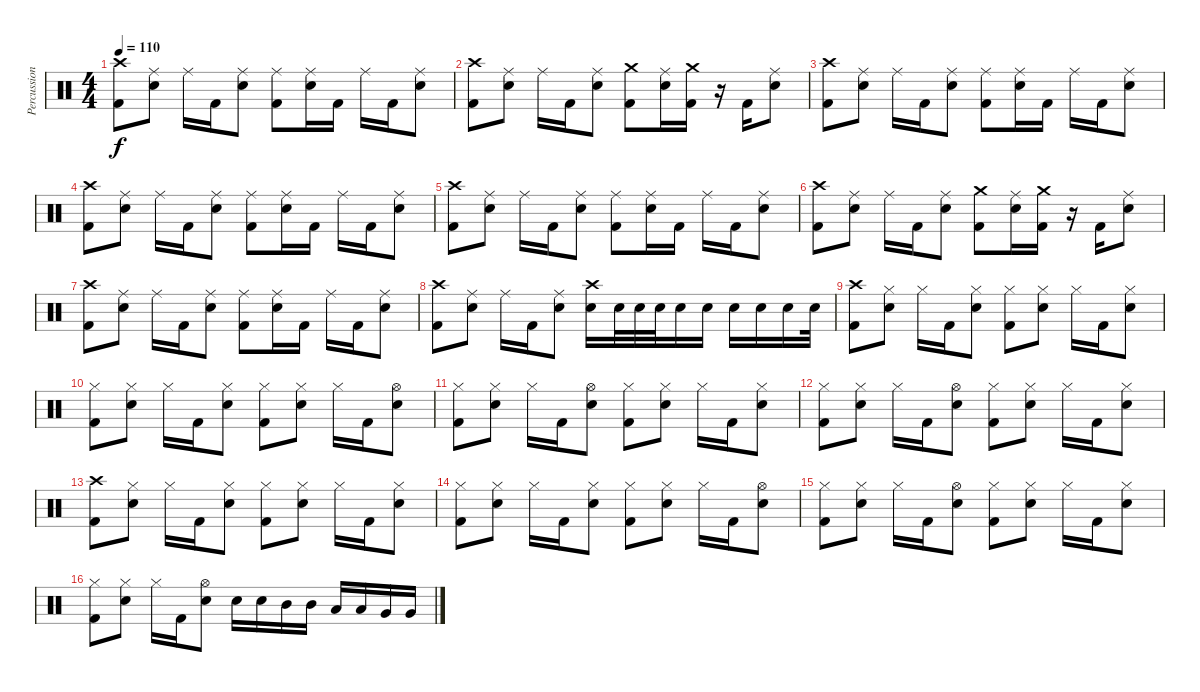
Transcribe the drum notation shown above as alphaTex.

\track ("Percussion" "Percussion") {instrument percussion}
\staff {score}
\articulation defaults
\ts (4 4)
\tempo 110
\clef neutral
\ks c
("Crash high (hit)" "Kick (hit) 2").8{dy f} ("Ride (middle)" "Electric Snare (hit)").8 "Ride (middle)".16 "Kick (hit) 2".16 ("Ride (middle)" "Electric Snare (hit)").8 ("Ride (middle)" "Kick (hit) 2").8 ("Ride (middle)" "Electric Snare (hit)").16 "Kick (hit) 2".16 "Ride (middle)".16 "Kick (hit) 2".16 ("Ride (middle)" "Electric Snare (hit)").8 |
("Crash high (hit)" "Kick (hit) 2").8 ("Ride (middle)" "Electric Snare (hit)").8 "Ride (middle)".16 "Kick (hit) 2".16 ("Ride (middle)" "Electric Snare (hit)").8 ("Crash medium (hit)" "Kick (hit) 2").8 ("Ride (middle)" "Electric Snare (hit)").16 ("Crash medium (hit)" "Kick (hit) 2").16 r.16 "Kick (hit) 2".16 ("Ride (middle)" "Electric Snare (hit)").8 |
("Crash high (hit)" "Kick (hit) 2").8 ("Ride (middle)" "Electric Snare (hit)").8 "Ride (middle)".16 "Kick (hit) 2".16 ("Ride (middle)" "Electric Snare (hit)").8 ("Ride (middle)" "Kick (hit) 2").8 ("Ride (middle)" "Electric Snare (hit)").16 "Kick (hit) 2".16 "Ride (middle)".16 "Kick (hit) 2".16 ("Ride (middle)" "Electric Snare (hit)").8 |
("Crash high (hit)" "Kick (hit) 2").8 ("Ride (middle)" "Electric Snare (hit)").8 "Ride (middle)".16 "Kick (hit) 2".16 ("Ride (middle)" "Electric Snare (hit)").8 ("Ride (middle)" "Kick (hit) 2").8 ("Ride (middle)" "Electric Snare (hit)").16 "Kick (hit) 2".16 "Ride (middle)".16 "Kick (hit) 2".16 ("Ride (middle)" "Electric Snare (hit)").8 |
("Crash high (hit)" "Kick (hit) 2").8 ("Ride (middle)" "Electric Snare (hit)").8 "Ride (middle)".16 "Kick (hit) 2".16 ("Ride (middle)" "Electric Snare (hit)").8 ("Ride (middle)" "Kick (hit) 2").8 ("Ride (middle)" "Electric Snare (hit)").16 "Kick (hit) 2".16 "Ride (middle)".16 "Kick (hit) 2".16 ("Ride (middle)" "Electric Snare (hit)").8 |
("Crash high (hit)" "Kick (hit) 2").8 ("Ride (middle)" "Electric Snare (hit)").8 "Ride (middle)".16 "Kick (hit) 2".16 ("Ride (middle)" "Electric Snare (hit)").8 ("Crash medium (hit)" "Kick (hit) 2").8 ("Ride (middle)" "Electric Snare (hit)").16 ("Crash medium (hit)" "Kick (hit) 2").16 r.16 "Kick (hit) 2".16 ("Ride (middle)" "Electric Snare (hit)").8 |
("Crash high (hit)" "Kick (hit) 2").8 ("Ride (middle)" "Electric Snare (hit)").8 "Ride (middle)".16 "Kick (hit) 2".16 ("Ride (middle)" "Electric Snare (hit)").8 ("Ride (middle)" "Kick (hit) 2").8 ("Ride (middle)" "Electric Snare (hit)").16 "Kick (hit) 2".16 "Ride (middle)".16 "Kick (hit) 2".16 ("Ride (middle)" "Electric Snare (hit)").8 |
("Crash high (hit)" "Kick (hit) 2").8 ("Ride (middle)" "Electric Snare (hit)").8 "Ride (middle)".16 "Kick (hit) 2".16 ("Ride (middle)" "Electric Snare (hit)").8 ("Crash high (hit)" "Electric Snare (hit)").16 "Electric Snare (hit)".32 "Electric Snare (hit)".32 "Electric Snare (hit)".32 "Electric Snare (hit)".16 "Electric Snare (hit)".16 "Electric Snare (hit)".16 "Electric Snare (hit)".16 "Electric Snare (hit)".16 "Electric Snare (hit)".32 |
("Crash high (hit)" "Kick (hit) 2").8 ("Hi-Hat (closed)" "Electric Snare (hit)").8 "Hi-Hat (closed)".16 "Kick (hit) 2".16 ("Hi-Hat (closed)" "Electric Snare (hit)").8 ("Hi-Hat (closed)" "Kick (hit) 2").8 ("Hi-Hat (closed)" "Electric Snare (hit)").8 "Hi-Hat (closed)".16 "Kick (hit) 2".16 ("Hi-Hat (closed)" "Electric Snare (hit)").8 |
("Hi-Hat (closed)" "Kick (hit) 2").8 ("Hi-Hat (closed)" "Electric Snare (hit)").8 "Hi-Hat (closed)".16 "Kick (hit) 2".16 ("Hi-Hat (closed)" "Electric Snare (hit)").8 ("Hi-Hat (closed)" "Kick (hit) 2").8 ("Hi-Hat (closed)" "Electric Snare (hit)").8 "Hi-Hat (closed)".16 "Kick (hit) 2".16 ("Hi-Hat (open)" "Electric Snare (hit)").8 |
("Hi-Hat (closed)" "Kick (hit) 2").8 ("Hi-Hat (closed)" "Electric Snare (hit)").8 "Hi-Hat (closed)".16 "Kick (hit) 2".16 ("Hi-Hat (open)" "Electric Snare (hit)").8 ("Hi-Hat (closed)" "Kick (hit) 2").8 ("Hi-Hat (closed)" "Electric Snare (hit)").8 "Hi-Hat (closed)".16 "Kick (hit) 2".16 ("Hi-Hat (closed)" "Electric Snare (hit)").8 |
("Hi-Hat (closed)" "Kick (hit) 2").8 ("Hi-Hat (closed)" "Electric Snare (hit)").8 "Hi-Hat (closed)".16 "Kick (hit) 2".16 ("Hi-Hat (open)" "Electric Snare (hit)").8 ("Hi-Hat (closed)" "Kick (hit) 2").8 ("Hi-Hat (closed)" "Electric Snare (hit)").8 "Hi-Hat (closed)".16 "Kick (hit) 2".16 ("Hi-Hat (closed)" "Electric Snare (hit)").8 |
("Crash high (hit)" "Kick (hit) 2").8 ("Hi-Hat (closed)" "Electric Snare (hit)").8 "Hi-Hat (closed)".16 "Kick (hit) 2".16 ("Hi-Hat (closed)" "Electric Snare (hit)").8 ("Hi-Hat (closed)" "Kick (hit) 2").8 ("Hi-Hat (closed)" "Electric Snare (hit)").8 "Hi-Hat (closed)".16 "Kick (hit) 2".16 ("Hi-Hat (closed)" "Electric Snare (hit)").8 |
("Hi-Hat (closed)" "Kick (hit) 2").8 ("Hi-Hat (closed)" "Electric Snare (hit)").8 "Hi-Hat (closed)".16 "Kick (hit) 2".16 ("Hi-Hat (closed)" "Electric Snare (hit)").8 ("Hi-Hat (closed)" "Kick (hit) 2").8 ("Hi-Hat (closed)" "Electric Snare (hit)").8 "Hi-Hat (closed)".16 "Kick (hit) 2".16 ("Hi-Hat (open)" "Electric Snare (hit)").8 |
("Hi-Hat (closed)" "Kick (hit) 2").8 ("Hi-Hat (closed)" "Electric Snare (hit)").8 "Hi-Hat (closed)".16 "Kick (hit) 2".16 ("Hi-Hat (open)" "Electric Snare (hit)").8 ("Hi-Hat (closed)" "Kick (hit) 2").8 ("Hi-Hat (closed)" "Electric Snare (hit)").8 "Hi-Hat (closed)".16 "Kick (hit) 2".16 ("Hi-Hat (closed)" "Electric Snare (hit)").8 |
("Hi-Hat (closed)" "Kick (hit) 2").8 ("Hi-Hat (closed)" "Electric Snare (hit)").8 "Hi-Hat (closed)".16 "Kick (hit) 2".16 ("Hi-Hat (open)" "Electric Snare (hit)").8 "Electric Snare (hit)".16 "Electric Snare (hit)".16 "Mid Tom (hit)".16 "Mid Tom (hit)".16 "Low Tom (hit)".16 "Low Tom (hit)".16 "Very Low Tom (hit)".16 "Very Low Tom (hit)".16
